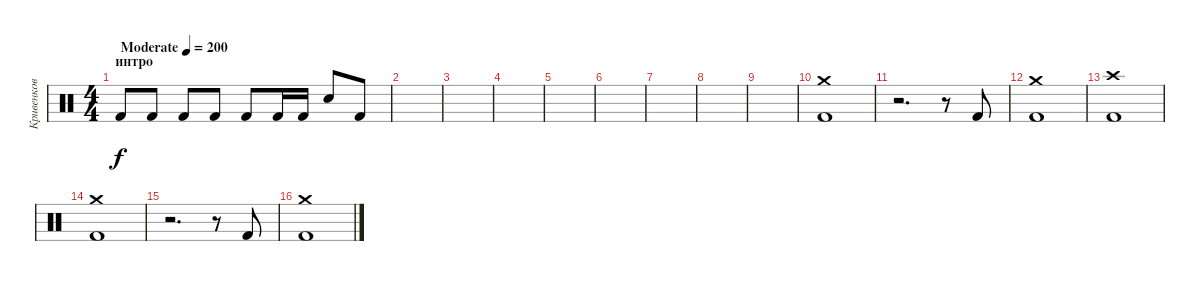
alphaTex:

\track ("Кривенков" "Кривенков") {instrument percussion}
\staff {score}
\articulation defaults
\ts (4 4)
\section ("" "интро")
\tempo (200 "Moderate")
\clef neutral
\ks c "Kick (hit) 2".8{dy f} "Kick (hit) 2".8 "Kick (hit) 2".8 "Kick (hit) 2".8 "Kick (hit) 2".8 "Kick (hit) 2".16 "Kick (hit) 2".16 "Electric Snare (hit)".8 "Kick (hit) 2".8
|
|
|
|
|
|
|
|
|
("Crash medium (hit)" "Kick (hit) 2").1 |
r.2{d} r.8 "Kick (hit) 2".8 |
("Crash medium (hit)" "Kick (hit) 2").1 |
("Crash high (hit)" "Kick (hit) 2").1 |
("Crash medium (hit)" "Kick (hit) 2").1 |
r.2{d} r.8 "Kick (hit) 2".8 |
("Crash medium (hit)" "Kick (hit) 2").1
